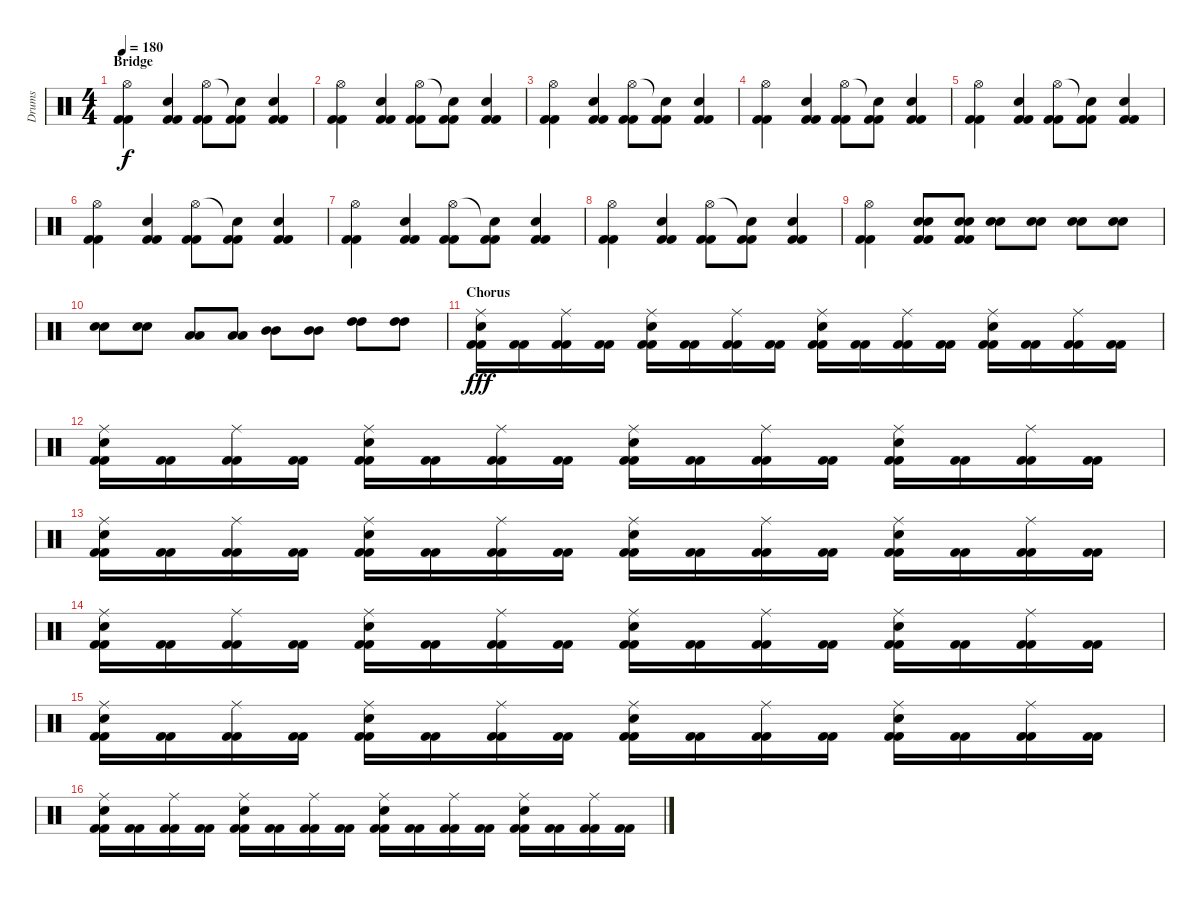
\track ("Drums" "Drums") {instrument percussion}
\staff {score}
\articulation defaults
\ts (4 4)
\section ("" "Bridge")
\tempo 180
\clef neutral
\ks c
("Hi-Hat (open)" "Kick (hit) 2" "Kick (hit) 2").4{dy f} ("Snare (hit) 2" "Kick (hit) 2" "Kick (hit) 2").4 ("Hi-Hat (open)" "Kick (hit) 2" "Kick (hit) 2").8 ("Snare (hit)"{t} "Kick (hit) 2" "Kick (hit) 2").8 ("Snare (hit) 2" "Kick (hit) 2" "Kick (hit) 2").4 |
("Hi-Hat (open)" "Kick (hit) 2" "Kick (hit) 2").4 ("Snare (hit) 2" "Kick (hit) 2" "Kick (hit) 2").4 ("Hi-Hat (open)" "Kick (hit) 2" "Kick (hit) 2").8 ("Snare (hit)"{t} "Kick (hit) 2" "Kick (hit) 2").8 ("Snare (hit) 2" "Kick (hit) 2" "Kick (hit) 2").4 |
("Hi-Hat (open)" "Kick (hit) 2" "Kick (hit) 2").4 ("Snare (hit) 2" "Kick (hit) 2" "Kick (hit) 2").4 ("Hi-Hat (open)" "Kick (hit) 2" "Kick (hit) 2").8 ("Snare (hit)"{t} "Kick (hit) 2" "Kick (hit) 2").8 ("Snare (hit) 2" "Kick (hit) 2" "Kick (hit) 2").4 |
("Hi-Hat (open)" "Kick (hit) 2" "Kick (hit) 2").4 ("Snare (hit) 2" "Kick (hit) 2" "Kick (hit) 2").4 ("Hi-Hat (open)" "Kick (hit) 2" "Kick (hit) 2").8 ("Snare (hit)"{t} "Kick (hit) 2" "Kick (hit) 2").8 ("Snare (hit) 2" "Kick (hit) 2" "Kick (hit) 2").4 |
("Hi-Hat (open)" "Kick (hit) 2" "Kick (hit) 2").4 ("Snare (hit) 2" "Kick (hit) 2" "Kick (hit) 2").4 ("Hi-Hat (open)" "Kick (hit) 2" "Kick (hit) 2").8 ("Snare (hit)"{t} "Kick (hit) 2" "Kick (hit) 2").8 ("Snare (hit) 2" "Kick (hit) 2" "Kick (hit) 2").4 |
("Hi-Hat (open)" "Kick (hit) 2" "Kick (hit) 2").4 ("Snare (hit) 2" "Kick (hit) 2" "Kick (hit) 2").4 ("Hi-Hat (open)" "Kick (hit) 2" "Kick (hit) 2").8 ("Snare (hit)"{t} "Kick (hit) 2" "Kick (hit) 2").8 ("Snare (hit) 2" "Kick (hit) 2" "Kick (hit) 2").4 |
("Hi-Hat (open)" "Kick (hit) 2" "Kick (hit) 2").4 ("Snare (hit) 2" "Kick (hit) 2" "Kick (hit) 2").4 ("Hi-Hat (open)" "Kick (hit) 2" "Kick (hit) 2").8 ("Snare (hit)"{t} "Kick (hit) 2" "Kick (hit) 2").8 ("Snare (hit) 2" "Kick (hit) 2" "Kick (hit) 2").4 |
("Hi-Hat (open)" "Kick (hit) 2" "Kick (hit) 2").4 ("Snare (hit) 2" "Kick (hit) 2" "Kick (hit) 2").4 ("Hi-Hat (open)" "Kick (hit) 2" "Kick (hit) 2").8 ("Snare (hit)"{t} "Kick (hit) 2" "Kick (hit) 2").8 ("Snare (hit) 2" "Kick (hit) 2" "Kick (hit) 2").4 |
("Hi-Hat (open)" "Kick (hit) 2" "Kick (hit) 2").4 ("Snare (hit) 2" "Snare (hit) 2" "Kick (hit) 2" "Kick (hit) 2").8 ("Snare (hit) 2" "Snare (hit) 2" "Kick (hit) 2" "Kick (hit) 2").8 ("Snare (hit) 2" "Snare (hit) 2").8 ("Snare (hit) 2" "Snare (hit) 2").8 ("Snare (hit) 2" "Snare (hit) 2").8 ("Snare (hit) 2" "Snare (hit) 2").8 |
("Snare (hit) 2" "Snare (hit) 2").8 ("Snare (hit) 2" "Snare (hit) 2").8 ("Low Tom (hit)" "Low Tom (hit)").8 ("Low Tom (hit)" "Low Tom (hit)").8 ("Mid Tom (hit)" "Mid Tom (hit)").8 ("Mid Tom (hit)" "Mid Tom (hit)").8 ("High Tom (hit)" "High Tom (hit)").8 ("High Tom (hit)" "High Tom (hit)").8 |
\section ("" "Chorus")
("Kick (hit) 2" "Kick (hit) 2" "Electric Snare (hit)" "Ride (middle)").16{dy fff} ("Kick (hit) 2" "Kick (hit) 2").16 ("Kick (hit) 2" "Kick (hit) 2" "Ride (middle)").16 ("Kick (hit) 2" "Kick (hit) 2").16 ("Kick (hit) 2" "Kick (hit) 2" "Electric Snare (hit)" "Ride (middle)").16 ("Kick (hit) 2" "Kick (hit) 2").16 ("Kick (hit) 2" "Kick (hit) 2" "Ride (middle)").16 ("Kick (hit) 2" "Kick (hit) 2").16 ("Kick (hit) 2" "Kick (hit) 2" "Electric Snare (hit)" "Ride (middle)").16 ("Kick (hit) 2" "Kick (hit) 2").16 ("Kick (hit) 2" "Kick (hit) 2" "Ride (middle)").16 ("Kick (hit) 2" "Kick (hit) 2").16 ("Kick (hit) 2" "Kick (hit) 2" "Electric Snare (hit)" "Ride (middle)").16 ("Kick (hit) 2" "Kick (hit) 2").16 ("Kick (hit) 2" "Kick (hit) 2" "Ride (middle)").16 ("Kick (hit) 2" "Kick (hit) 2").16 |
("Kick (hit) 2" "Kick (hit) 2" "Electric Snare (hit)" "Ride (middle)").16 ("Kick (hit) 2" "Kick (hit) 2").16 ("Kick (hit) 2" "Kick (hit) 2" "Ride (middle)").16 ("Kick (hit) 2" "Kick (hit) 2").16 ("Kick (hit) 2" "Kick (hit) 2" "Electric Snare (hit)" "Ride (middle)").16 ("Kick (hit) 2" "Kick (hit) 2").16 ("Kick (hit) 2" "Kick (hit) 2" "Ride (middle)").16 ("Kick (hit) 2" "Kick (hit) 2").16 ("Kick (hit) 2" "Kick (hit) 2" "Electric Snare (hit)" "Ride (middle)").16 ("Kick (hit) 2" "Kick (hit) 2").16 ("Kick (hit) 2" "Kick (hit) 2" "Ride (middle)").16 ("Kick (hit) 2" "Kick (hit) 2").16 ("Kick (hit) 2" "Kick (hit) 2" "Electric Snare (hit)" "Ride (middle)").16 ("Kick (hit) 2" "Kick (hit) 2").16 ("Kick (hit) 2" "Kick (hit) 2" "Ride (middle)").16 ("Kick (hit) 2" "Kick (hit) 2").16 |
("Kick (hit) 2" "Kick (hit) 2" "Electric Snare (hit)" "Ride (middle)").16 ("Kick (hit) 2" "Kick (hit) 2").16 ("Kick (hit) 2" "Kick (hit) 2" "Ride (middle)").16 ("Kick (hit) 2" "Kick (hit) 2").16 ("Kick (hit) 2" "Kick (hit) 2" "Electric Snare (hit)" "Ride (middle)").16 ("Kick (hit) 2" "Kick (hit) 2").16 ("Kick (hit) 2" "Kick (hit) 2" "Ride (middle)").16 ("Kick (hit) 2" "Kick (hit) 2").16 ("Kick (hit) 2" "Kick (hit) 2" "Electric Snare (hit)" "Ride (middle)").16 ("Kick (hit) 2" "Kick (hit) 2").16 ("Kick (hit) 2" "Kick (hit) 2" "Ride (middle)").16 ("Kick (hit) 2" "Kick (hit) 2").16 ("Kick (hit) 2" "Kick (hit) 2" "Electric Snare (hit)" "Ride (middle)").16 ("Kick (hit) 2" "Kick (hit) 2").16 ("Kick (hit) 2" "Kick (hit) 2" "Ride (middle)").16 ("Kick (hit) 2" "Kick (hit) 2").16 |
("Kick (hit) 2" "Kick (hit) 2" "Electric Snare (hit)" "Ride (middle)").16 ("Kick (hit) 2" "Kick (hit) 2").16 ("Kick (hit) 2" "Kick (hit) 2" "Ride (middle)").16 ("Kick (hit) 2" "Kick (hit) 2").16 ("Kick (hit) 2" "Kick (hit) 2" "Electric Snare (hit)" "Ride (middle)").16 ("Kick (hit) 2" "Kick (hit) 2").16 ("Kick (hit) 2" "Kick (hit) 2" "Ride (middle)").16 ("Kick (hit) 2" "Kick (hit) 2").16 ("Kick (hit) 2" "Kick (hit) 2" "Electric Snare (hit)" "Ride (middle)").16 ("Kick (hit) 2" "Kick (hit) 2").16 ("Kick (hit) 2" "Kick (hit) 2" "Ride (middle)").16 ("Kick (hit) 2" "Kick (hit) 2").16 ("Kick (hit) 2" "Kick (hit) 2" "Electric Snare (hit)" "Ride (middle)").16 ("Kick (hit) 2" "Kick (hit) 2").16 ("Kick (hit) 2" "Kick (hit) 2" "Ride (middle)").16 ("Kick (hit) 2" "Kick (hit) 2").16 |
("Kick (hit) 2" "Kick (hit) 2" "Electric Snare (hit)" "Ride (middle)").16 ("Kick (hit) 2" "Kick (hit) 2").16 ("Kick (hit) 2" "Kick (hit) 2" "Ride (middle)").16 ("Kick (hit) 2" "Kick (hit) 2").16 ("Kick (hit) 2" "Kick (hit) 2" "Electric Snare (hit)" "Ride (middle)").16 ("Kick (hit) 2" "Kick (hit) 2").16 ("Kick (hit) 2" "Kick (hit) 2" "Ride (middle)").16 ("Kick (hit) 2" "Kick (hit) 2").16 ("Kick (hit) 2" "Kick (hit) 2" "Electric Snare (hit)" "Ride (middle)").16 ("Kick (hit) 2" "Kick (hit) 2").16 ("Kick (hit) 2" "Kick (hit) 2" "Ride (middle)").16 ("Kick (hit) 2" "Kick (hit) 2").16 ("Kick (hit) 2" "Kick (hit) 2" "Electric Snare (hit)" "Ride (middle)").16 ("Kick (hit) 2" "Kick (hit) 2").16 ("Kick (hit) 2" "Kick (hit) 2" "Ride (middle)").16 ("Kick (hit) 2" "Kick (hit) 2").16 |
("Kick (hit) 2" "Kick (hit) 2" "Electric Snare (hit)" "Ride (middle)").16 ("Kick (hit) 2" "Kick (hit) 2").16 ("Kick (hit) 2" "Kick (hit) 2" "Ride (middle)").16 ("Kick (hit) 2" "Kick (hit) 2").16 ("Kick (hit) 2" "Kick (hit) 2" "Electric Snare (hit)" "Ride (middle)").16 ("Kick (hit) 2" "Kick (hit) 2").16 ("Kick (hit) 2" "Kick (hit) 2" "Ride (middle)").16 ("Kick (hit) 2" "Kick (hit) 2").16 ("Kick (hit) 2" "Kick (hit) 2" "Electric Snare (hit)" "Ride (middle)").16 ("Kick (hit) 2" "Kick (hit) 2").16 ("Kick (hit) 2" "Kick (hit) 2" "Ride (middle)").16 ("Kick (hit) 2" "Kick (hit) 2").16 ("Kick (hit) 2" "Kick (hit) 2" "Electric Snare (hit)" "Ride (middle)").16 ("Kick (hit) 2" "Kick (hit) 2").16 ("Kick (hit) 2" "Kick (hit) 2" "Ride (middle)").16 ("Kick (hit) 2" "Kick (hit) 2").16
